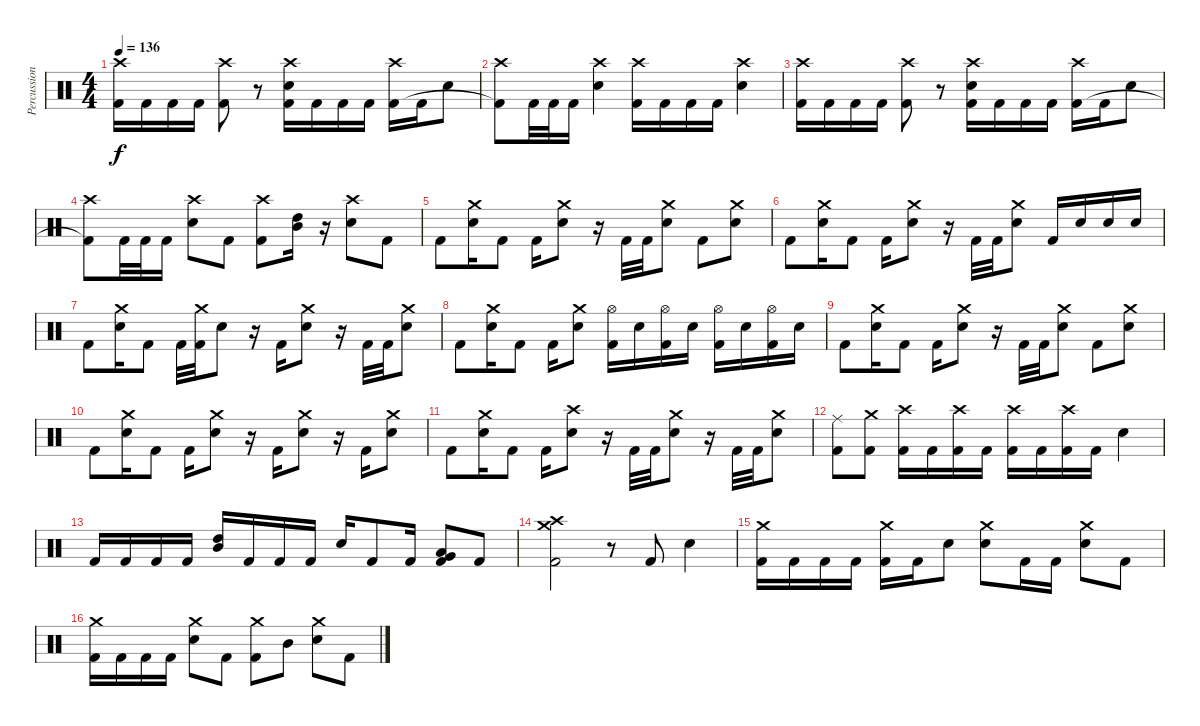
\track ("Percussion" "Percussion") {instrument percussion}
\staff {score}
\articulation defaults
\ts (4 4)
\tempo 136
\clef neutral
\ks c
("Crash high (hit)" "Kick (hit) 2").16{dy f} "Kick (hit) 2".16 "Kick (hit) 2".16 "Kick (hit) 2".16 ("Crash high (hit)" "Kick (hit) 2").8 r.8 ("Crash high (hit)" "Electric Snare (hit)" "Kick (hit) 2").16 "Kick (hit) 2".16 "Kick (hit) 2".16 "Kick (hit) 2".16 ("Crash high (hit)" "Kick (hit) 2").16 "Kick (hit) 2".16 "Electric Snare (hit)".8 |
("Crash high (hit)" "Kick (hit) 2"{t}).8 "Kick (hit) 2".32 "Kick (hit) 2".32 "Kick (hit) 2".16 ("Crash high (hit)" "Electric Snare (hit)").4 ("Crash high (hit)" "Kick (hit) 2").16 "Kick (hit) 2".16 "Kick (hit) 2".16 "Kick (hit) 2".16 ("Crash high (hit)" "Electric Snare (hit)").4 |
("Crash high (hit)" "Kick (hit) 2").16 "Kick (hit) 2".16 "Kick (hit) 2".16 "Kick (hit) 2".16 ("Crash high (hit)" "Kick (hit) 2").8 r.8 ("Crash high (hit)" "Electric Snare (hit)" "Kick (hit) 2").16 "Kick (hit) 2".16 "Kick (hit) 2".16 "Kick (hit) 2".16 ("Crash high (hit)" "Kick (hit) 2").16 "Kick (hit) 2".16 "Electric Snare (hit)".8 |
("Crash high (hit)" "Kick (hit) 2"{t}).8 "Kick (hit) 2".32 "Kick (hit) 2".32 "Kick (hit) 2".16 ("Crash high (hit)" "Electric Snare (hit)").8 "Kick (hit) 2".8 ("Crash high (hit)" "Kick (hit) 2").8 ("High Tom (hit)" "Mid Tom (hit)").16 r.16 ("Crash high (hit)" "Electric Snare (hit)").8 "Kick (hit) 2".8 |
"Kick (hit) 2".8 ("Crash medium (hit)" "Electric Snare (hit)").16 "Kick (hit) 2".8 "Kick (hit) 2".16 ("Crash medium (hit)" "Electric Snare (hit)").8 r.16 "Kick (hit) 2".32 "Kick (hit) 2".32 ("Crash medium (hit)" "Electric Snare (hit)").8 "Kick (hit) 2".8 ("Crash medium (hit)" "Electric Snare (hit)").8 |
"Kick (hit) 2".8 ("Crash medium (hit)" "Electric Snare (hit)").16 "Kick (hit) 2".8 "Kick (hit) 2".16 ("Crash medium (hit)" "Electric Snare (hit)").8 r.16 "Kick (hit) 2".32 "Kick (hit) 2".32 ("Crash medium (hit)" "Electric Snare (hit)").8 "Kick (hit) 2".16 "Electric Snare (hit)".16 "Electric Snare (hit)".16 "Electric Snare (hit)".16 |
"Kick (hit) 2".8 ("Crash medium (hit)" "Electric Snare (hit)").16 "Kick (hit) 2".8 "Kick (hit) 2".32 ("Crash medium (hit)" "Kick (hit) 2").32 "Electric Snare (hit)".8 r.16 "Kick (hit) 2".16 ("Crash medium (hit)" "Electric Snare (hit)").8 r.16 "Kick (hit) 2".32 "Kick (hit) 2".32 ("Crash medium (hit)" "Electric Snare (hit)").8 |
"Kick (hit) 2".8 ("Crash medium (hit)" "Electric Snare (hit)").16 "Kick (hit) 2".8 "Kick (hit) 2".16 ("Crash medium (hit)" "Electric Snare (hit)").8 ("Hi-Hat (open)" "Kick (hit) 2").16 "Electric Snare (hit)".16 ("Hi-Hat (open)" "Kick (hit) 2").16 "Electric Snare (hit)".16 ("Hi-Hat (open)" "Kick (hit) 2").16 "Electric Snare (hit)".16 ("Hi-Hat (open)" "Kick (hit) 2").16 "Electric Snare (hit)".16 |
"Kick (hit) 2".8 ("Crash medium (hit)" "Electric Snare (hit)").16 "Kick (hit) 2".8 "Kick (hit) 2".16 ("Crash medium (hit)" "Electric Snare (hit)").8 r.16 "Kick (hit) 2".32 "Kick (hit) 2".32 ("Crash medium (hit)" "Electric Snare (hit)").8 "Kick (hit) 2".8 ("Crash medium (hit)" "Electric Snare (hit)").8 |
"Kick (hit) 2".8 ("Crash medium (hit)" "Electric Snare (hit)").16 "Kick (hit) 2".8 "Kick (hit) 2".16 ("Crash medium (hit)" "Electric Snare (hit)").8 r.16 "Kick (hit) 2".16 ("Crash medium (hit)" "Electric Snare (hit)").8 r.16 "Kick (hit) 2".16 ("Crash medium (hit)" "Electric Snare (hit)").8 |
"Kick (hit) 2".8 ("Crash medium (hit)" "Electric Snare (hit)").16 "Kick (hit) 2".8 "Kick (hit) 2".16 ("Crash high (hit)" "Electric Snare (hit)").8 r.16 "Kick (hit) 2".32 "Kick (hit) 2".32 ("Crash medium (hit)" "Electric Snare (hit)").8 r.16 "Kick (hit) 2".32 "Kick (hit) 2".32 ("Crash medium (hit)" "Electric Snare (hit)").8 |
("Ride (middle)" "Kick (hit) 2").8 ("Crash medium (hit)" "Kick (hit) 2").8 ("Crash high (hit)" "Kick (hit) 2").16 "Kick (hit) 2".16 ("Crash high (hit)" "Kick (hit) 2").16 "Kick (hit) 2".16 ("Crash high (hit)" "Kick (hit) 2").16 "Kick (hit) 2".16 ("Crash high (hit)" "Kick (hit) 2").16 "Kick (hit) 2".16 "Electric Snare (hit)".4 |
"Kick (hit) 2".16 "Kick (hit) 2".16 "Kick (hit) 2".16 "Kick (hit) 2".16 ("High Tom (hit)" "Mid Tom (hit)").16 "Kick (hit) 2".16 "Kick (hit) 2".16 "Kick (hit) 2".16 "Electric Snare (hit)".16 "Kick (hit) 2".8 "Kick (hit) 2".16 ("Very Low Tom (hit)" "Low Floor Tom (hit)" "Kick (hit) 2").8 "Kick (hit) 2".8 |
("Crash high (hit)" "Crash medium (hit)" "Kick (hit) 2").2 r.8 "Kick (hit) 2".8 "Electric Snare (hit)".4 |
("Crash medium (hit)" "Kick (hit) 2").16 "Kick (hit) 2".16 "Kick (hit) 2".16 "Kick (hit) 2".16 ("Crash medium (hit)" "Kick (hit) 2").16 "Kick (hit) 2".16 "Electric Snare (hit)".8 ("Crash medium (hit)" "Electric Snare (hit)").8 "Kick (hit) 2".16 "Kick (hit) 2".16 ("Crash medium (hit)" "Electric Snare (hit)").8 "Kick (hit) 2".8 |
("Crash medium (hit)" "Kick (hit) 2").16 "Kick (hit) 2".16 "Kick (hit) 2".16 "Kick (hit) 2".16 ("Crash medium (hit)" "Electric Snare (hit)").8 "Kick (hit) 2".8 ("Crash medium (hit)" "Kick (hit) 2").8 "Mid Tom (hit)".8 ("Crash medium (hit)" "Electric Snare (hit)").8 "Kick (hit) 2".8
